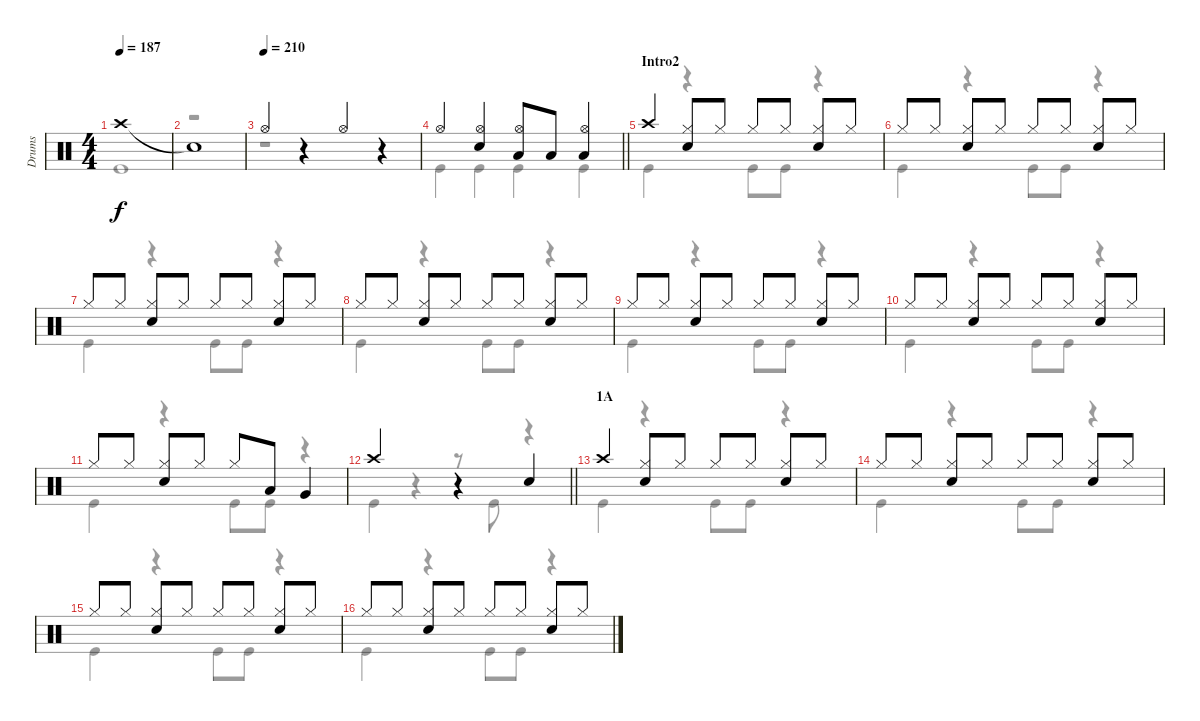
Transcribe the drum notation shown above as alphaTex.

\track ("Drums" "Drums") {instrument percussion}
\staff {score}
\articulation defaults
\voice
\ts (4 4)
\tempo 187
\clef neutral
\ks c "Crash high (hit)".1{dy f}
|
"Snare (hit)"{t}.1 |
\tempo (210)
"Hi-Hat (open)".4 r.4 "Hi-Hat (open)".4 r.4 |
\barLineRight lightlight "Hi-Hat (open)".4
("Hi-Hat (open)" "Snare (hit) 2").4 ("Hi-Hat (open)" "Low Tom (hit)").8 "Low Tom (hit)".8 ("Hi-Hat (open)" "Low Tom (hit)").4 |
\section ("" "Intro2")
"Crash high (hit)".4 ("Hi-Hat (closed)" "Snare (hit) 2").8 "Hi-Hat (closed)".8 "Hi-Hat (closed)".8 "Hi-Hat (closed)".8 ("Hi-Hat (closed)" "Snare (hit) 2").8 "Hi-Hat (closed)".8 |
"Hi-Hat (closed)".8 "Hi-Hat (closed)".8 ("Hi-Hat (closed)" "Snare (hit) 2").8 "Hi-Hat (closed)".8 "Hi-Hat (closed)".8 "Hi-Hat (closed)".8 ("Hi-Hat (closed)" "Snare (hit) 2").8 "Hi-Hat (closed)".8 |
"Hi-Hat (closed)".8 "Hi-Hat (closed)".8 ("Hi-Hat (closed)" "Snare (hit) 2").8 "Hi-Hat (closed)".8 "Hi-Hat (closed)".8 "Hi-Hat (closed)".8 ("Hi-Hat (closed)" "Snare (hit) 2").8 "Hi-Hat (closed)".8 |
"Hi-Hat (closed)".8 "Hi-Hat (closed)".8 ("Hi-Hat (closed)" "Snare (hit) 2").8 "Hi-Hat (closed)".8 "Hi-Hat (closed)".8 "Hi-Hat (closed)".8 ("Hi-Hat (closed)" "Snare (hit) 2").8 "Hi-Hat (closed)".8 |
"Hi-Hat (closed)".8 "Hi-Hat (closed)".8 ("Hi-Hat (closed)" "Snare (hit) 2").8 "Hi-Hat (closed)".8 "Hi-Hat (closed)".8 "Hi-Hat (closed)".8 ("Hi-Hat (closed)" "Snare (hit) 2").8 "Hi-Hat (closed)".8 |
"Hi-Hat (closed)".8 "Hi-Hat (closed)".8 ("Hi-Hat (closed)" "Snare (hit) 2").8 "Hi-Hat (closed)".8 "Hi-Hat (closed)".8 "Hi-Hat (closed)".8 ("Hi-Hat (closed)" "Snare (hit) 2").8 "Hi-Hat (closed)".8 |
"Hi-Hat (closed)".8 "Hi-Hat (closed)".8 ("Hi-Hat (closed)" "Snare (hit) 2").8 "Hi-Hat (closed)".8 "Hi-Hat (closed)".8 "Low Tom (hit)".8 "Very Low Tom (hit)".4 |
\barLineRight lightlight "Crash high (hit)".2
r.4 "Snare (hit) 2".4 |
\section ("" "1A")
"Crash high (hit)".4 ("Hi-Hat (closed)" "Snare (hit) 2").8 "Hi-Hat (closed)".8 "Hi-Hat (closed)".8 "Hi-Hat (closed)".8 ("Hi-Hat (closed)" "Snare (hit) 2").8 "Hi-Hat (closed)".8 |
"Hi-Hat (closed)".8 "Hi-Hat (closed)".8 ("Hi-Hat (closed)" "Snare (hit) 2").8 "Hi-Hat (closed)".8 "Hi-Hat (closed)".8 "Hi-Hat (closed)".8 ("Hi-Hat (closed)" "Snare (hit) 2").8 "Hi-Hat (closed)".8 |
"Hi-Hat (closed)".8 "Hi-Hat (closed)".8 ("Hi-Hat (closed)" "Snare (hit) 2").8 "Hi-Hat (closed)".8 "Hi-Hat (closed)".8 "Hi-Hat (closed)".8 ("Hi-Hat (closed)" "Snare (hit) 2").8 "Hi-Hat (closed)".8 |
"Hi-Hat (closed)".8 "Hi-Hat (closed)".8 ("Hi-Hat (closed)" "Snare (hit) 2").8 "Hi-Hat (closed)".8 "Hi-Hat (closed)".8 "Hi-Hat (closed)".8 ("Hi-Hat (closed)" "Snare (hit) 2").8 "Hi-Hat (closed)".8
\voice
\clef neutral
\ottava regular
\simile none
\ks c "Kick (hit)".1{dy f}
|
r.1 |
r.1 |
\barLineRight lightlight "Kick (hit)".4 "Kick (hit)".4 "Kick (hit)".4 "Kick (hit)".4
|
"Kick (hit)".4 r.4 "Kick (hit)".8 "Kick (hit)".8 r.4 |
"Kick (hit)".4 r.4 "Kick (hit)".8 "Kick (hit)".8 r.4 |
"Kick (hit)".4 r.4 "Kick (hit)".8 "Kick (hit)".8 r.4 |
"Kick (hit)".4 r.4 "Kick (hit)".8 "Kick (hit)".8 r.4 |
"Kick (hit)".4 r.4 "Kick (hit)".8 "Kick (hit)".8 r.4 |
"Kick (hit)".4 r.4 "Kick (hit)".8 "Kick (hit)".8 r.4 |
"Kick (hit)".4 r.4 "Kick (hit)".8 "Kick (hit)".8 r.4 |
\barLineRight lightlight "Kick (hit)".4
r.4 r.8 "Kick (hit)".8 r.4 |
"Kick (hit)".4 r.4 "Kick (hit)".8 "Kick (hit)".8 r.4 |
"Kick (hit)".4 r.4 "Kick (hit)".8 "Kick (hit)".8 r.4 |
"Kick (hit)".4 r.4 "Kick (hit)".8 "Kick (hit)".8 r.4 |
"Kick (hit)".4 r.4 "Kick (hit)".8 "Kick (hit)".8 r.4
